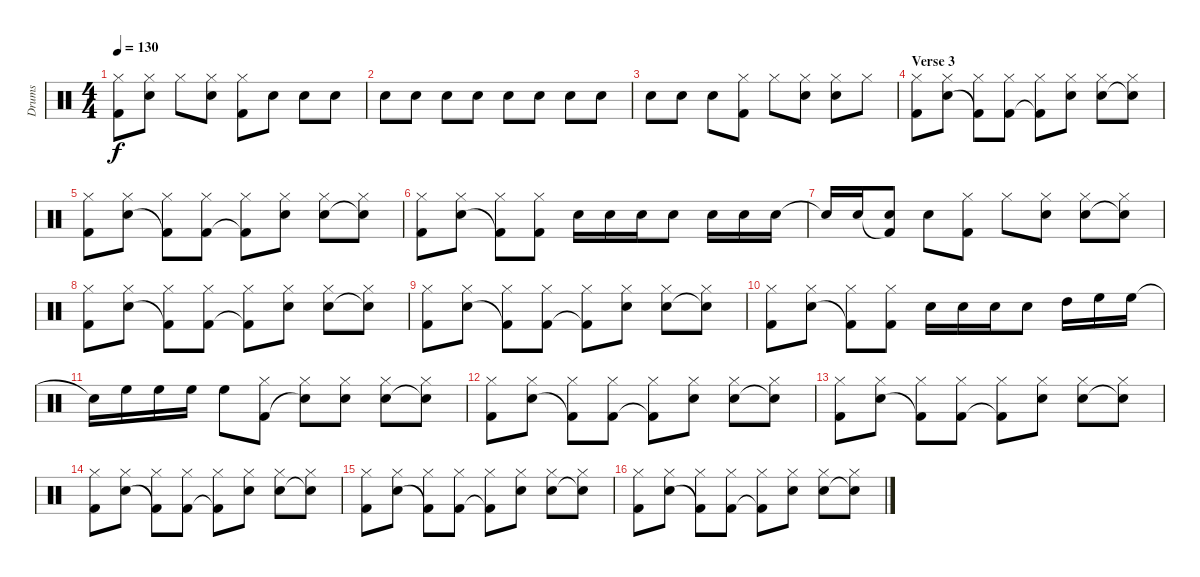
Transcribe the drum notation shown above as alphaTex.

\track ("Drums" "Drums") {instrument percussion}
\staff {score}
\articulation defaults
\ts (4 4)
\tempo 130
\clef neutral
\ks c
("Kick (hit) 2" "Hi-Hat (closed)").8{dy f} ("Hi-Hat (closed)" "Snare (hit) 2").8 "Hi-Hat (closed)".8 ("Hi-Hat (closed)" "Snare (hit) 2").8 ("Kick (hit) 2" "Hi-Hat (closed)").8 "Snare (hit) 2".8 "Snare (hit) 2".8 "Snare (hit) 2".8 |
"Snare (hit) 2".8 "Snare (hit) 2".8 "Snare (hit) 2".8 "Snare (hit) 2".8 "Snare (hit) 2".8 "Snare (hit) 2".8 "Snare (hit) 2".8 "Snare (hit) 2".8 |
"Snare (hit) 2".8 "Snare (hit) 2".8 "Snare (hit) 2".8 ("Kick (hit) 2" "Hi-Hat (closed)").8 "Hi-Hat (closed)".8 ("Snare (hit) 2" "Hi-Hat (closed)").8 ("Snare (hit) 2" "Hi-Hat (closed)").8 "Hi-Hat (closed)".8 |
\section ("" "Verse 3")
("Kick (hit) 2" "Hi-Hat (closed)").8 ("Snare (hit) 2" "Hi-Hat (closed)").8 ("Kick (hit) 2"{t} "Hi-Hat (closed)").8 ("Kick (hit) 2" "Hi-Hat (closed)").8 ("Kick (hit) 2"{t} "Hi-Hat (closed)").8 ("Snare (hit) 2" "Hi-Hat (closed)").8 ("Snare (hit) 2" "Hi-Hat (closed)").8 ("Snare (hit) 2"{t} "Hi-Hat (closed)").8 |
("Kick (hit) 2" "Hi-Hat (closed)").8 ("Snare (hit) 2" "Hi-Hat (closed)").8 ("Kick (hit) 2"{t} "Hi-Hat (closed)").8 ("Kick (hit) 2" "Hi-Hat (closed)").8 ("Kick (hit) 2"{t} "Hi-Hat (closed)").8 ("Snare (hit) 2" "Hi-Hat (closed)").8 ("Snare (hit) 2" "Hi-Hat (closed)").8 ("Snare (hit) 2"{t} "Hi-Hat (closed)").8 |
("Kick (hit) 2" "Hi-Hat (closed)").8 ("Snare (hit) 2" "Hi-Hat (closed)").8 ("Kick (hit) 2"{t} "Hi-Hat (closed)").8 ("Kick (hit) 2" "Hi-Hat (closed)").8 "Snare (hit) 2".16 "Snare (hit) 2".16 "Snare (hit) 2".16 "Snare (hit) 2".8 "Snare (hit) 2".16 "Snare (hit) 2".16 "Snare (hit) 2".16 |
"Snare (hit)"{t}.16 "Snare (hit) 2".16 ("Kick (hit) 2"{t} "Snare (hit) 2").8 "Snare (hit) 2".8 ("Kick (hit) 2" "Hi-Hat (closed)").8 "Hi-Hat (closed)".8 ("Snare (hit) 2" "Hi-Hat (closed)").8 ("Snare (hit) 2" "Hi-Hat (closed)").8 ("Snare (hit)"{t} "Hi-Hat (closed)").8 |
("Kick (hit) 2" "Hi-Hat (closed)").8 ("Snare (hit) 2" "Hi-Hat (closed)").8 ("Kick (hit) 2"{t} "Hi-Hat (closed)").8 ("Kick (hit) 2" "Hi-Hat (closed)").8 ("Kick (hit) 2"{t} "Hi-Hat (closed)").8 ("Snare (hit) 2" "Hi-Hat (closed)").8 ("Snare (hit) 2" "Hi-Hat (closed)").8 ("Snare (hit) 2"{t} "Hi-Hat (closed)").8 |
("Kick (hit) 2" "Hi-Hat (closed)").8 ("Snare (hit) 2" "Hi-Hat (closed)").8 ("Kick (hit) 2"{t} "Hi-Hat (closed)").8 ("Kick (hit) 2" "Hi-Hat (closed)").8 ("Kick (hit) 2"{t} "Hi-Hat (closed)").8 ("Snare (hit) 2" "Hi-Hat (closed)").8 ("Snare (hit) 2" "Hi-Hat (closed)").8 ("Snare (hit) 2"{t} "Hi-Hat (closed)").8 |
("Kick (hit) 2" "Hi-Hat (closed)").8 ("Snare (hit) 2" "Hi-Hat (closed)").8 ("Kick (hit) 2"{t} "Hi-Hat (closed)").8 ("Kick (hit) 2" "Hi-Hat (closed)").8 "Snare (hit) 2".16 "Snare (hit) 2".16 "Snare (hit) 2".16 "Snare (hit) 2".8 "High Tom (hit)".16 "High Floor Tom (hit)".16 "High Floor Tom (hit)".16 |
"Snare (hit)"{t}.16 "High Floor Tom (hit)".16 "High Floor Tom (hit)".16 "High Floor Tom (hit)".16 "High Floor Tom (hit)".8 ("Kick (hit) 2" "Hi-Hat (closed)").8 ("Snare (hit) 2"{t} "Hi-Hat (closed)").8 ("Snare (hit) 2" "Hi-Hat (closed)").8 ("Snare (hit) 2" "Hi-Hat (closed)").8 ("Snare (hit)"{t} "Hi-Hat (closed)").8 |
("Kick (hit) 2" "Hi-Hat (closed)").8 ("Snare (hit) 2" "Hi-Hat (closed)").8 ("Kick (hit) 2"{t} "Hi-Hat (closed)").8 ("Kick (hit) 2" "Hi-Hat (closed)").8 ("Kick (hit) 2"{t} "Hi-Hat (closed)").8 ("Snare (hit) 2" "Hi-Hat (closed)").8 ("Snare (hit) 2" "Hi-Hat (closed)").8 ("Snare (hit) 2"{t} "Hi-Hat (closed)").8 |
("Kick (hit) 2" "Hi-Hat (closed)").8 ("Snare (hit) 2" "Hi-Hat (closed)").8 ("Kick (hit) 2"{t} "Hi-Hat (closed)").8 ("Kick (hit) 2" "Hi-Hat (closed)").8 ("Kick (hit) 2"{t} "Hi-Hat (closed)").8 ("Snare (hit) 2" "Hi-Hat (closed)").8 ("Snare (hit) 2" "Hi-Hat (closed)").8 ("Snare (hit) 2"{t} "Hi-Hat (closed)").8 |
("Kick (hit) 2" "Hi-Hat (closed)").8 ("Snare (hit) 2" "Hi-Hat (closed)").8 ("Kick (hit) 2"{t} "Hi-Hat (closed)").8 ("Kick (hit) 2" "Hi-Hat (closed)").8 ("Kick (hit) 2"{t} "Hi-Hat (closed)").8 ("Snare (hit) 2" "Hi-Hat (closed)").8 ("Snare (hit) 2" "Hi-Hat (closed)").8 ("Snare (hit) 2"{t} "Hi-Hat (closed)").8 |
("Kick (hit) 2" "Hi-Hat (closed)").8 ("Snare (hit) 2" "Hi-Hat (closed)").8 ("Kick (hit) 2"{t} "Hi-Hat (closed)").8 ("Kick (hit) 2" "Hi-Hat (closed)").8 ("Kick (hit) 2"{t} "Hi-Hat (closed)").8 ("Snare (hit) 2" "Hi-Hat (closed)").8 ("Snare (hit) 2" "Hi-Hat (closed)").8 ("Snare (hit) 2"{t} "Hi-Hat (closed)").8 |
("Kick (hit) 2" "Hi-Hat (closed)").8 ("Snare (hit) 2" "Hi-Hat (closed)").8 ("Kick (hit) 2"{t} "Hi-Hat (closed)").8 ("Kick (hit) 2" "Hi-Hat (closed)").8 ("Kick (hit) 2"{t} "Hi-Hat (closed)").8 ("Snare (hit) 2" "Hi-Hat (closed)").8 ("Snare (hit) 2" "Hi-Hat (closed)").8 ("Snare (hit) 2"{t} "Hi-Hat (closed)").8
